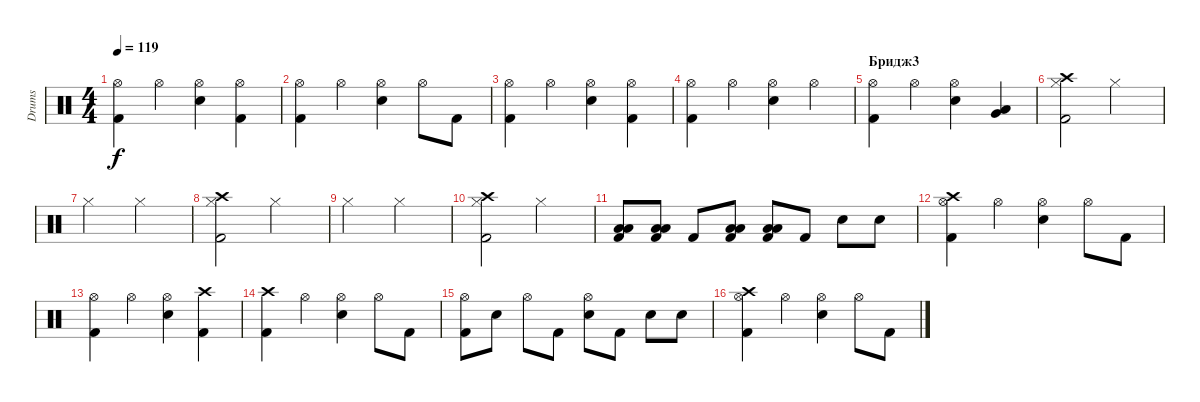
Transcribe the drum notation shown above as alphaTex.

\track ("Drums" "Drums") {instrument percussion}
\staff {score}
\articulation defaults
\ts (4 4)
\tempo 119
\clef neutral
\ks c
("Kick (hit) 2" "Hi-Hat (open)").4{dy f} "Hi-Hat (open)".4 ("Electric Snare (hit)" "Hi-Hat (open)").4 ("Kick (hit) 2" "Hi-Hat (open)").4 |
("Kick (hit) 2" "Hi-Hat (open)").4 "Hi-Hat (open)".4 ("Electric Snare (hit)" "Hi-Hat (open)").4 "Hi-Hat (open)".8 "Kick (hit) 2".8 |
("Kick (hit) 2" "Hi-Hat (open)").4 "Hi-Hat (open)".4 ("Electric Snare (hit)" "Hi-Hat (open)").4 ("Kick (hit) 2" "Hi-Hat (open)").4 |
("Kick (hit) 2" "Hi-Hat (open)").4 "Hi-Hat (open)".4 ("Electric Snare (hit)" "Hi-Hat (open)").4 "Hi-Hat (open)".4 |
\section ("" "Бридж3")
("Kick (hit) 2" "Hi-Hat (open)").4 "Hi-Hat (open)".4 ("Electric Snare (hit)" "Hi-Hat (open)").4 ("Low Floor Tom (hit)" "Very Low Tom (hit)").4 |
("Kick (hit) 2" "Hi-Hat (closed)" "Crash high (hit)").2 "Hi-Hat (closed)".2 |
"Hi-Hat (closed)".2 "Hi-Hat (closed)".2 |
("Kick (hit) 2" "Hi-Hat (closed)" "Crash high (hit)").2 "Hi-Hat (closed)".2 |
"Hi-Hat (closed)".2 "Hi-Hat (closed)".2 |
("Kick (hit) 2" "Hi-Hat (closed)" "Crash high (hit)").2 "Hi-Hat (closed)".2 |
("Kick (hit) 2" "Low Floor Tom (hit)" "Low Tom (hit)").8 ("Kick (hit) 2" "Low Floor Tom (hit)" "Low Tom (hit)").8 "Kick (hit) 2".8 ("Kick (hit) 2" "Low Floor Tom (hit)" "Low Tom (hit)").8 ("Kick (hit) 2" "Low Floor Tom (hit)" "Low Tom (hit)").8 "Kick (hit) 2".8 "Electric Snare (hit)".8 "Electric Snare (hit)".8 |
("Kick (hit) 2" "Hi-Hat (open)" "Crash high (hit)").4 "Hi-Hat (open)".4 ("Electric Snare (hit)" "Hi-Hat (open)").4 "Hi-Hat (open)".8 "Kick (hit) 2".8 |
("Kick (hit) 2" "Hi-Hat (open)").4 "Hi-Hat (open)".4 ("Electric Snare (hit)" "Hi-Hat (open)").4 ("Kick (hit) 2" "Crash high (hit)").4 |
("Kick (hit) 2" "Crash high (hit)").4 "Hi-Hat (open)".4 ("Electric Snare (hit)" "Hi-Hat (open)").4 "Hi-Hat (open)".8 "Kick (hit) 2".8 |
("Kick (hit) 2" "Hi-Hat (open)").8 "Electric Snare (hit)".8 "Hi-Hat (open)".8 "Kick (hit) 2".8 ("Electric Snare (hit)" "Hi-Hat (open)").8 "Kick (hit) 2".8 "Electric Snare (hit)".8 "Electric Snare (hit)".8 |
("Kick (hit) 2" "Hi-Hat (open)" "Crash high (hit)").4 "Hi-Hat (open)".4 ("Electric Snare (hit)" "Hi-Hat (open)").4 "Hi-Hat (open)".8 "Kick (hit) 2".8
